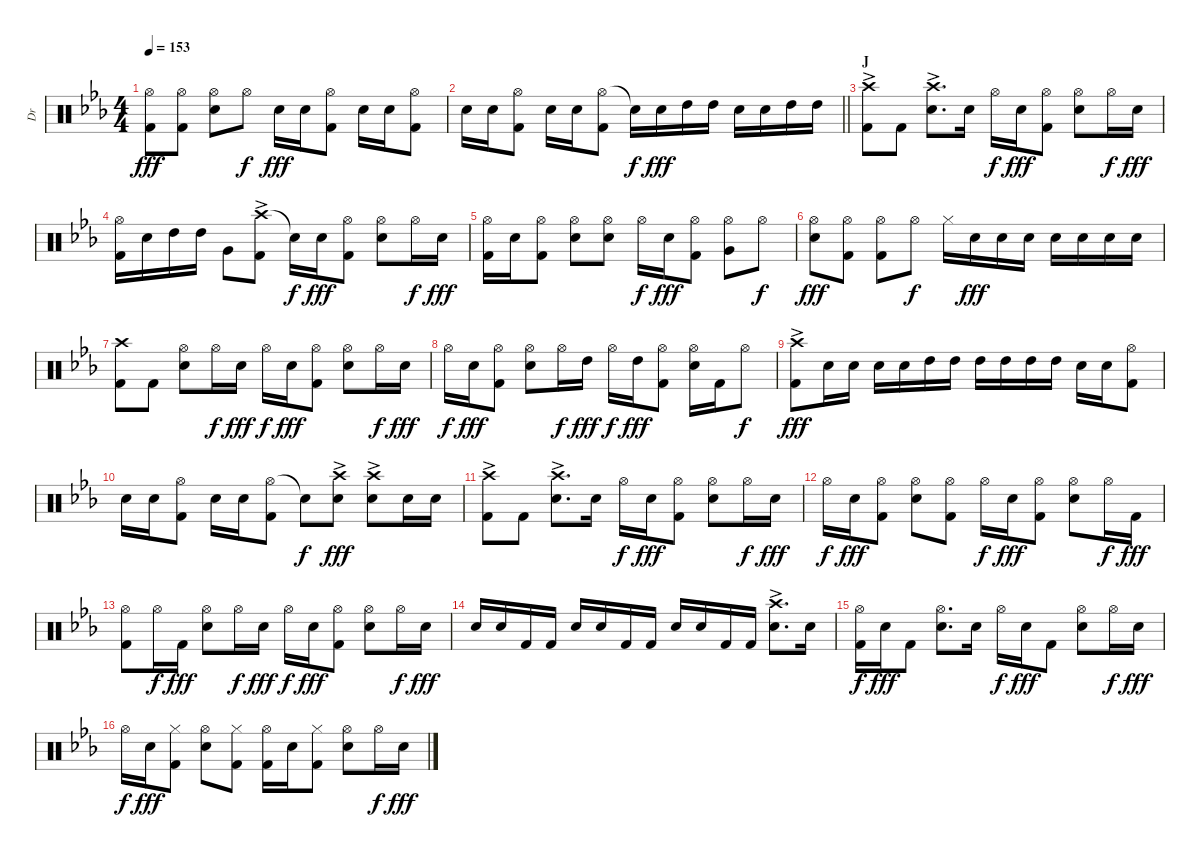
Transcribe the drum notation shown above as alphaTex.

\track ("Dr" "Dr") {instrument percussion}
\staff {score}
\articulation defaults
\ts (4 4)
\tempo 153
\clef neutral
\ks cminor
("Hi-Hat (open)" "Kick (hit) 2").8{dy fff} ("Hi-Hat (open)" "Kick (hit) 2").8 ("Hi-Hat (open)" "Electric Snare (hit)").8 "Hi-Hat (open)".8{dy f} "Electric Snare (hit)".16{dy fff} "Electric Snare (hit)".16 ("Hi-Hat (open)" "Kick (hit) 2").8 "Electric Snare (hit)".16 "Electric Snare (hit)".16 ("Hi-Hat (open)" "Kick (hit) 2").8 |
\barLineRight lightlight "Electric Snare (hit)".16 "Electric Snare (hit)".16
("Hi-Hat (open)" "Kick (hit) 2").8 "Electric Snare (hit)".16 "Electric Snare (hit)".16 ("Hi-Hat (open)" "Kick (hit) 2").8 "Snare (hit)"{t}.16{dy f} "Electric Snare (hit)".16{dy fff} "High Tom (hit)".16 "High Tom (hit)".16 "Electric Snare (hit)".16 "Electric Snare (hit)".16 "High Tom (hit)".16 "High Tom (hit)".16 |
\section ("" "J")
("Crash high (hit)"{ac} "Kick (hit) 2"{ac}).8 "Kick (hit) 2".8 ("Crash high (hit)"{ac} "Electric Snare (hit)"{ac}).8{d} "Electric Snare (hit)".16 "Hi-Hat (open)".16{dy f} "Electric Snare (hit)".16{dy fff} ("Hi-Hat (open)" "Kick (hit) 2").8 ("Hi-Hat (open)" "Electric Snare (hit)").8 "Hi-Hat (open)".16{dy f} "Electric Snare (hit)".16{dy fff} |
("Hi-Hat (open)" "Kick (hit) 2").16 "Electric Snare (hit)".16 "High Tom (hit)".16 "High Tom (hit)".16 "Very Low Tom (hit)".8 ("Crash high (hit)"{ac} "Kick (hit) 2"{ac}).8 "Snare (hit)"{t}.16{dy f} "Electric Snare (hit)".16{dy fff} ("Hi-Hat (open)" "Kick (hit) 2").8 ("Hi-Hat (open)" "Electric Snare (hit)").8 "Hi-Hat (open)".16{dy f} "Electric Snare (hit)".16{dy fff} |
("Hi-Hat (open)" "Kick (hit) 2").16 "Electric Snare (hit)".16 ("Hi-Hat (open)" "Kick (hit) 2").8 ("Hi-Hat (open)" "Electric Snare (hit)").8 ("Hi-Hat (open)" "Electric Snare (hit)").8 "Hi-Hat (open)".16{dy f} "Electric Snare (hit)".16{dy fff} ("Hi-Hat (open)" "Kick (hit) 2").8 ("Hi-Hat (open)" "Very Low Tom (hit)").8 "Hi-Hat (open)".8{dy f} |
("Hi-Hat (open)" "Electric Snare (hit)").8{dy fff} ("Hi-Hat (open)" "Kick (hit) 2").8 ("Hi-Hat (open)" "Kick (hit) 2").8 "Hi-Hat (open)".8{dy f} "Hi-Hat (closed)".16 "Electric Snare (hit)".16{dy fff} "Electric Snare (hit)".16 "Electric Snare (hit)".16 "Electric Snare (hit)".16 "Electric Snare (hit)".16 "Electric Snare (hit)".16 "Electric Snare (hit)".16 |
("Crash high (hit)" "Kick (hit) 2").8 "Kick (hit) 2".8 ("Hi-Hat (open)" "Electric Snare (hit)").8 "Hi-Hat (open)".16{dy f} "Electric Snare (hit)".16{dy fff} "Hi-Hat (open)".16{dy f} "Electric Snare (hit)".16{dy fff} ("Hi-Hat (open)" "Kick (hit) 2").8 ("Hi-Hat (open)" "Electric Snare (hit)").8 "Hi-Hat (open)".16{dy f} "Electric Snare (hit)".16{dy fff} |
"Hi-Hat (open)".16{dy f} "Electric Snare (hit)".16{dy fff} ("Hi-Hat (open)" "Kick (hit) 2").8 ("Hi-Hat (open)" "Electric Snare (hit)").8 "Hi-Hat (open)".16{dy f} "High Tom (hit)".16{dy fff} "Hi-Hat (open)".16{dy f} "High Tom (hit)".16{dy fff} ("Hi-Hat (open)" "Kick (hit) 2").8 ("Hi-Hat (open)" "Electric Snare (hit)").16 "Kick (hit) 2".16 "Hi-Hat (open)".8{dy f} |
("Crash high (hit)"{ac} "Kick (hit) 2"{ac}).8{dy fff} "Electric Snare (hit)".16 "Electric Snare (hit)".16 "Electric Snare (hit)".16 "Electric Snare (hit)".16 "High Tom (hit)".16 "High Tom (hit)".16 "High Tom (hit)".16 "High Tom (hit)".16 "High Tom (hit)".16 "High Tom (hit)".16 "Electric Snare (hit)".16 "Electric Snare (hit)".16 ("Hi-Hat (open)" "Kick (hit) 2").8 |
"Electric Snare (hit)".16 "Electric Snare (hit)".16 ("Hi-Hat (open)" "Kick (hit) 2").8 "Electric Snare (hit)".16 "Electric Snare (hit)".16 ("Hi-Hat (open)" "Kick (hit) 2").8 "Snare (hit)"{t}.8{dy f} ("Crash high (hit)"{ac} "Electric Snare (hit)"{ac}).8{dy fff} ("Crash high (hit)"{ac} "Electric Snare (hit)"{ac}).8 "Electric Snare (hit)".16 "Electric Snare (hit)".16 |
("Crash high (hit)"{ac} "Kick (hit) 2"{ac}).8 "Kick (hit) 2".8 ("Crash high (hit)"{ac} "Electric Snare (hit)"{ac}).8{d} "Electric Snare (hit)".16 "Hi-Hat (open)".16{dy f} "Electric Snare (hit)".16{dy fff} ("Hi-Hat (open)" "Kick (hit) 2").8 ("Hi-Hat (open)" "Electric Snare (hit)").8 "Hi-Hat (open)".16{dy f} "Electric Snare (hit)".16{dy fff} |
"Hi-Hat (open)".16{dy f} "Electric Snare (hit)".16{dy fff} ("Hi-Hat (open)" "Kick (hit) 2").8 ("Hi-Hat (open)" "Electric Snare (hit)").8 ("Hi-Hat (open)" "Kick (hit) 2").8 "Hi-Hat (open)".16{dy f} "Electric Snare (hit)".16{dy fff} ("Hi-Hat (open)" "Kick (hit) 2").8 ("Hi-Hat (open)" "Electric Snare (hit)").8 "Hi-Hat (open)".16{dy f} "Kick (hit) 2".16{dy fff} |
("Hi-Hat (open)" "Kick (hit) 2").8 "Hi-Hat (open)".16{dy f} "Kick (hit) 2".16{dy fff} ("Hi-Hat (open)" "Electric Snare (hit)").8 "Hi-Hat (open)".16{dy f} "Electric Snare (hit)".16{dy fff} "Hi-Hat (open)".16{dy f} "Electric Snare (hit)".16{dy fff} ("Hi-Hat (open)" "Kick (hit) 2").8 ("Hi-Hat (open)" "Electric Snare (hit)").8 "Hi-Hat (open)".16{dy f} "Electric Snare (hit)".16{dy fff} |
"Electric Snare (hit)".16 "Electric Snare (hit)".16 "Kick (hit) 2".16 "Kick (hit) 2".16 "Electric Snare (hit)".16 "Electric Snare (hit)".16 "Kick (hit) 2".16 "Kick (hit) 2".16 "Electric Snare (hit)".16 "Electric Snare (hit)".16 "Kick (hit) 2".16 "Kick (hit) 2".16 ("Crash high (hit)"{ac} "Electric Snare (hit)"{ac}).8{d} "Electric Snare (hit)".16 |
("Hi-Hat (open)" "Kick (hit) 2").16{dy f} "Electric Snare (hit)".16{dy fff} "Kick (hit) 2".8 ("Hi-Hat (open)" "Electric Snare (hit)").8{d} "Electric Snare (hit)".16 "Hi-Hat (open)".16{dy f} "Electric Snare (hit)".16{dy fff} "Kick (hit) 2".8 ("Hi-Hat (open)" "Electric Snare (hit)").8 "Hi-Hat (open)".16{dy f} "Electric Snare (hit)".16{dy fff} |
"Hi-Hat (open)".16{dy f} "Electric Snare (hit)".16{dy fff} ("Hi-Hat (closed)" "Kick (hit) 2").8 ("Hi-Hat (open)" "Electric Snare (hit)").8 ("Hi-Hat (closed)" "Kick (hit) 2").8 ("Hi-Hat (open)" "Kick (hit) 2").16 "Electric Snare (hit)".16 ("Hi-Hat (closed)" "Kick (hit) 2").8 ("Hi-Hat (open)" "Electric Snare (hit)").8 "Hi-Hat (open)".16{dy f} "Electric Snare (hit)".16{dy fff}
